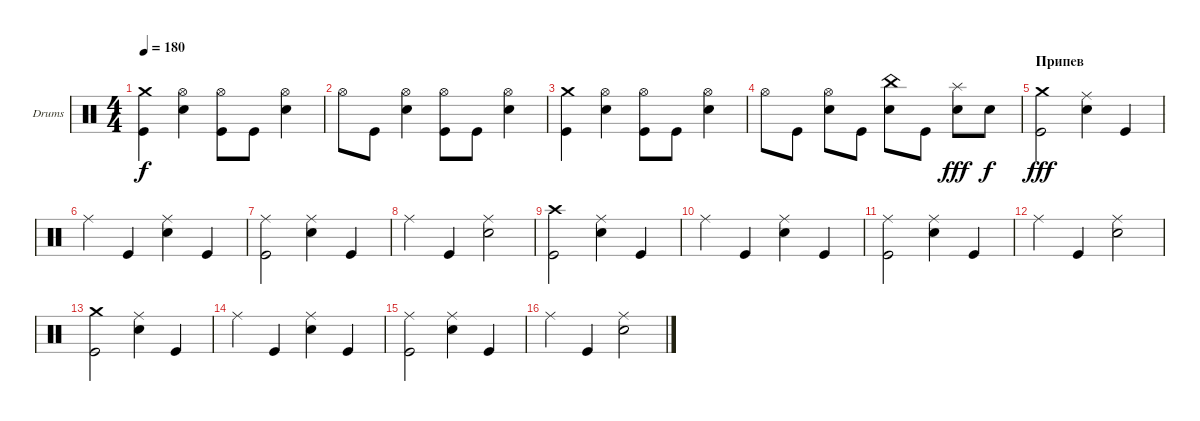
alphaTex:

\defaultSystemsLayout 4
\bracketExtendMode groupsimilarinstruments
\firstSystemTrackNameOrientation horizontal
\otherSystemsTrackNameOrientation horizontal
\track ("Барабаны" "Drums") {instrument percussion}
\staff {score}
\articulation defaults
\ts (4 4)
\tempo 180
\clef neutral
\ks c
("Crash medium (hit)" "Kick (hit)").4{dy f} ("Hi-Hat (open)" "Snare (hit) 2").4 ("Hi-Hat (open)" "Kick (hit)").8 "Kick (hit)".8 ("Hi-Hat (open)" "Snare (hit) 2").4 |
"Hi-Hat (open)".8 "Kick (hit)".8 ("Hi-Hat (open)" "Snare (hit) 2").4 ("Hi-Hat (open)" "Kick (hit)").8 "Kick (hit)".8 ("Hi-Hat (open)" "Snare (hit) 2").4 |
("Crash medium (hit)" "Kick (hit)").4 ("Hi-Hat (open)" "Snare (hit) 2").4 ("Hi-Hat (open)" "Kick (hit)").8 "Kick (hit)".8 ("Hi-Hat (open)" "Snare (hit) 2").4 |
"Hi-Hat (open)".8 "Kick (hit)".8 ("Hi-Hat (open)" "Snare (hit) 2").8 "Kick (hit)".8 ("China (hit)" "Snare (hit) 2").8 "Kick (hit)".8 ("Splash (hit)" "Snare (hit) 2").8{dy fff} "Snare (hit) 2".8{dy f} |
\section ("" "Припев")
("Crash medium (hit)" "Kick (hit)").2{dy fff} ("Ride (middle)" "Snare (hit) 2").4 "Kick (hit)".4 |
"Ride (middle)".4 "Kick (hit)".4 ("Ride (middle)" "Snare (hit) 2").4 "Kick (hit)".4 |
("Ride (middle)" "Kick (hit)").2 ("Ride (middle)" "Snare (hit) 2").4 "Kick (hit)".4 |
"Ride (middle)".4 "Kick (hit)".4 ("Ride (middle)" "Snare (hit) 2").2 |
("Crash high (hit)" "Kick (hit)").2 ("Ride (middle)" "Snare (hit) 2").4 "Kick (hit)".4 |
"Ride (middle)".4 "Kick (hit)".4 ("Ride (middle)" "Snare (hit) 2").4 "Kick (hit)".4 |
("Ride (middle)" "Kick (hit)").2 ("Ride (middle)" "Snare (hit) 2").4 "Kick (hit)".4 |
"Ride (middle)".4 "Kick (hit)".4 ("Ride (middle)" "Snare (hit) 2").2 |
("Crash medium (hit)" "Kick (hit)").2 ("Ride (middle)" "Snare (hit) 2").4 "Kick (hit)".4 |
"Ride (middle)".4 "Kick (hit)".4 ("Ride (middle)" "Snare (hit) 2").4 "Kick (hit)".4 |
("Ride (middle)" "Kick (hit)").2 ("Ride (middle)" "Snare (hit) 2").4 "Kick (hit)".4 |
"Ride (middle)".4 "Kick (hit)".4 ("Ride (middle)" "Snare (hit) 2").2
